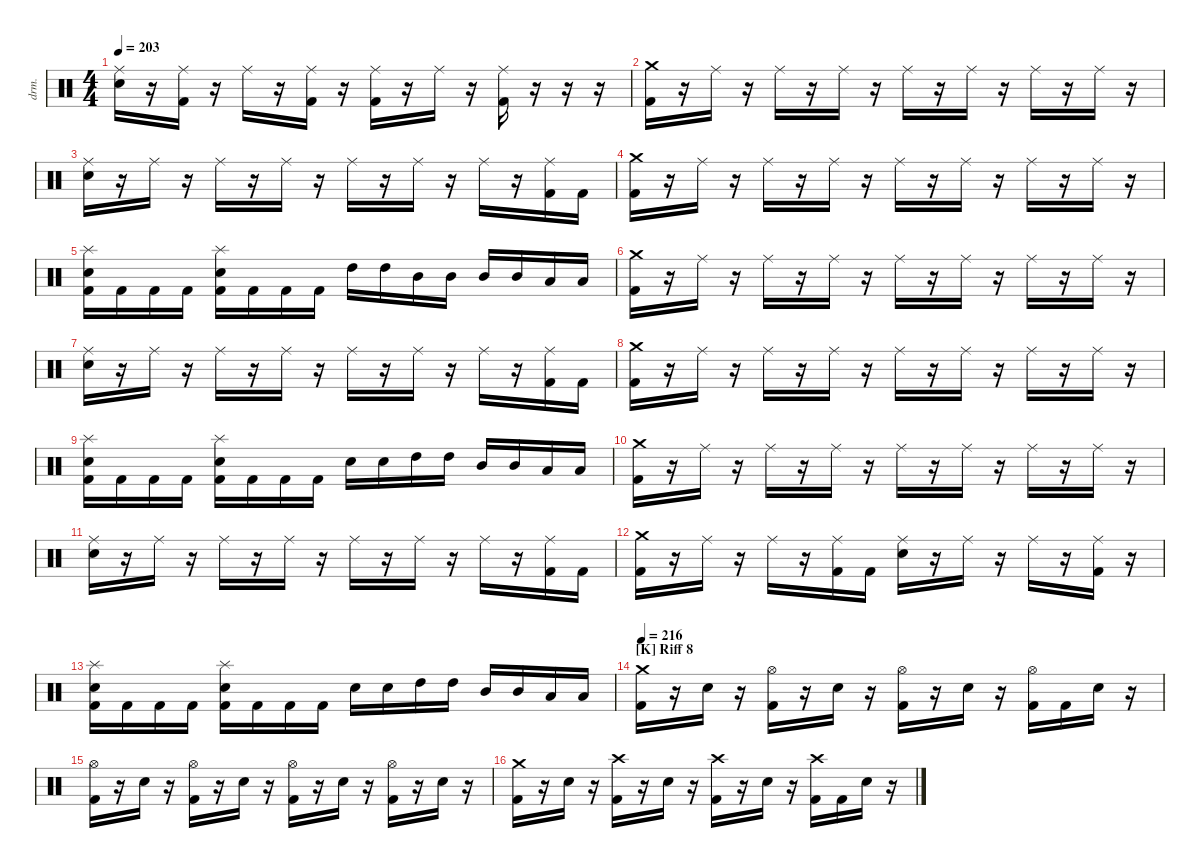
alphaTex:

\hideDynamics
\bracketExtendMode nobrackets
\track ("Drums" "drm.") {instrument percussion}
\staff {score}
\articulation defaults
\ts (4 4)
\tempo 203
\clef neutral
\ks c
("Ride (middle)" "Snare (hit) 2").16{dy mf beam Down} r.16{beam Down} ("Ride (middle)" "Kick (hit) 2").16{beam Down} r.16{beam Down} "Ride (middle)".16{beam Down} r.16{beam Down} ("Ride (middle)" "Kick (hit) 2").16{beam Down} r.16{beam Down} ("Ride (middle)" "Kick (hit) 2").16{beam Down} r.16{beam Down} "Ride (middle)".16{beam Down} r.16{beam Down} ("Ride (middle)" "Kick (hit) 2").16{beam Down} r.16{beam Down} r.16{beam Down} r.16{beam Down} |
("Crash medium (hit)" "Kick (hit) 2").16{beam Down} r.16{beam Down} "Ride (middle)".16{beam Down} r.16{beam Down} "Ride (middle)".16{beam Down} r.16{beam Down} "Ride (middle)".16{beam Down} r.16{beam Down} "Ride (middle)".16{beam Down} r.16{beam Down} "Ride (middle)".16{beam Down} r.16{beam Down} "Ride (middle)".16{beam Down} r.16{beam Down} "Ride (middle)".16{beam Down} r.16{beam Down} |
("Ride (middle)" "Snare (hit) 2").16{beam Down} r.16{beam Down} "Ride (middle)".16{beam Down} r.16{beam Down} "Ride (middle)".16{beam Down} r.16{beam Down} "Ride (middle)".16{beam Down} r.16{beam Down} "Ride (middle)".16{beam Down} r.16{beam Down} "Ride (middle)".16{beam Down} r.16{beam Down} "Ride (middle)".16{beam Down} r.16{beam Down} ("Ride (middle)" "Kick (hit) 2").16{beam Down} "Kick (hit) 2".16{beam Down} |
("Crash medium (hit)" "Kick (hit) 2").16{beam Down} r.16{beam Down} "Ride (middle)".16{beam Down} r.16{beam Down} "Ride (middle)".16{beam Down} r.16{beam Down} "Ride (middle)".16{beam Down} r.16{beam Down} "Ride (middle)".16{beam Down} r.16{beam Down} "Ride (middle)".16{beam Down} r.16{beam Down} "Ride (middle)".16{beam Down} r.16{beam Down} "Ride (middle)".16{beam Down} r.16{beam Down} |
("Snare (hit) 2" "Kick (hit) 2" "Splash (hit)").16{beam Down} "Kick (hit) 2".16{beam Down} "Kick (hit) 2".16{beam Down} "Kick (hit) 2".16{beam Down} ("Snare (hit) 2" "Kick (hit) 2" "Splash (hit)").16{beam Down} "Kick (hit) 2".16{beam Down} "Kick (hit) 2".16{beam Down} "Kick (hit) 2".16{beam Down} "High Tom (hit)".16{beam Down} "High Tom (hit)".16{beam Down} "Mid Tom (hit)".16{beam Down} "Mid Tom (hit)".16{beam Down} "Mid Tom (hit)".16{beam Up} "Mid Tom (hit)".16{beam Up} "Low Tom (hit)".16{beam Up} "Low Tom (hit)".16{beam Up} |
("Crash medium (hit)" "Kick (hit) 2").16{beam Down} r.16{beam Down} "Ride (middle)".16{beam Down} r.16{beam Down} "Ride (middle)".16{beam Down} r.16{beam Down} "Ride (middle)".16{beam Down} r.16{beam Down} "Ride (middle)".16{beam Down} r.16{beam Down} "Ride (middle)".16{beam Down} r.16{beam Down} "Ride (middle)".16{beam Down} r.16{beam Down} "Ride (middle)".16{beam Down} r.16{beam Down} |
("Ride (middle)" "Snare (hit) 2").16{beam Down} r.16{beam Down} "Ride (middle)".16{beam Down} r.16{beam Down} "Ride (middle)".16{beam Down} r.16{beam Down} "Ride (middle)".16{beam Down} r.16{beam Down} "Ride (middle)".16{beam Down} r.16{beam Down} "Ride (middle)".16{beam Down} r.16{beam Down} "Ride (middle)".16{beam Down} r.16{beam Down} ("Ride (middle)" "Kick (hit) 2").16{beam Down} "Kick (hit) 2".16{beam Down} |
("Crash medium (hit)" "Kick (hit) 2").16{beam Down} r.16{beam Down} "Ride (middle)".16{beam Down} r.16{beam Down} "Ride (middle)".16{beam Down} r.16{beam Down} "Ride (middle)".16{beam Down} r.16{beam Down} "Ride (middle)".16{beam Down} r.16{beam Down} "Ride (middle)".16{beam Down} r.16{beam Down} "Ride (middle)".16{beam Down} r.16{beam Down} "Ride (middle)".16{beam Down} r.16{beam Down} |
("Snare (hit) 2" "Kick (hit) 2" "Splash (hit)").16{beam Down} "Kick (hit) 2".16{beam Down} "Kick (hit) 2".16{beam Down} "Kick (hit) 2".16{beam Down} ("Snare (hit) 2" "Kick (hit) 2" "Splash (hit)").16{beam Down} "Kick (hit) 2".16{beam Down} "Kick (hit) 2".16{beam Down} "Kick (hit) 2".16{beam Down} "Snare (hit) 2".16{beam Down} "Snare (hit) 2".16{beam Down} "High Tom (hit)".16{beam Down} "High Tom (hit)".16{beam Down} "Mid Tom (hit)".16{beam Up} "Mid Tom (hit)".16{beam Up} "Low Tom (hit)".16{beam Up} "Low Tom (hit)".16{beam Up} |
("Crash medium (hit)" "Kick (hit) 2").16{beam Down} r.16{beam Down} "Ride (middle)".16{beam Down} r.16{beam Down} "Ride (middle)".16{beam Down} r.16{beam Down} "Ride (middle)".16{beam Down} r.16{beam Down} "Ride (middle)".16{beam Down} r.16{beam Down} "Ride (middle)".16{beam Down} r.16{beam Down} "Ride (middle)".16{beam Down} r.16{beam Down} "Ride (middle)".16{beam Down} r.16{beam Down} |
("Ride (middle)" "Snare (hit) 2").16{beam Down} r.16{beam Down} "Ride (middle)".16{beam Down} r.16{beam Down} "Ride (middle)".16{beam Down} r.16{beam Down} "Ride (middle)".16{beam Down} r.16{beam Down} "Ride (middle)".16{beam Down} r.16{beam Down} "Ride (middle)".16{beam Down} r.16{beam Down} "Ride (middle)".16{beam Down} r.16{beam Down} ("Ride (middle)" "Kick (hit) 2").16{beam Down} "Kick (hit) 2".16{beam Down} |
("Crash medium (hit)" "Kick (hit) 2").16{beam Down} r.16{beam Down} "Ride (middle)".16{beam Down} r.16{beam Down} "Ride (middle)".16{beam Down} r.16{beam Down} ("Ride (middle)" "Kick (hit) 2").16{beam Down} "Kick (hit) 2".16{beam Down} ("Ride (middle)" "Snare (hit) 2").16{beam Down} r.16{beam Down} "Ride (middle)".16{beam Down} r.16{beam Down} "Ride (middle)".16{beam Down} r.16{beam Down} ("Ride (middle)" "Kick (hit) 2").16{beam Down} r.16{beam Down} |
("Snare (hit) 2" "Kick (hit) 2" "Splash (hit)").16{beam Down} "Kick (hit) 2".16{beam Down} "Kick (hit) 2".16{beam Down} "Kick (hit) 2".16{beam Down} ("Snare (hit) 2" "Kick (hit) 2" "Splash (hit)").16{beam Down} "Kick (hit) 2".16{beam Down} "Kick (hit) 2".16{beam Down} "Kick (hit) 2".16{beam Down} "Snare (hit) 2".16{beam Down} "Snare (hit) 2".16{beam Down} "High Tom (hit)".16{beam Down} "High Tom (hit)".16{beam Down} "Mid Tom (hit)".16{beam Up} "Mid Tom (hit)".16{beam Up} "Low Tom (hit)".16{beam Up} "Low Tom (hit)".16{beam Up} |
\section ("K" "Riff 8")
\tempo 216
("Kick (hit) 2" "Crash medium (hit)").16{beam Down} r.16{beam Down} "Snare (hit) 2".16{beam Down} r.16{beam Down} ("Kick (hit) 2" "Hi-Hat (open)").16{beam Down} r.16{beam Down} "Snare (hit) 2".16{beam Down} r.16{beam Down} ("Kick (hit) 2" "Hi-Hat (open)").16{beam Down} r.16{beam Down} "Snare (hit) 2".16{beam Down} r.16{beam Down} ("Kick (hit) 2" "Hi-Hat (open)").16{beam Down} "Kick (hit) 2".16{beam Down} "Snare (hit) 2".16{beam Down} r.16{beam Down} |
("Kick (hit) 2" "Hi-Hat (open)").16{beam Down} r.16{beam Down} "Snare (hit) 2".16{beam Down} r.16{beam Down} ("Kick (hit) 2" "Hi-Hat (open)").16{beam Down} r.16{beam Down} "Snare (hit) 2".16{beam Down} r.16{beam Down} ("Kick (hit) 2" "Hi-Hat (open)").16{beam Down} r.16{beam Down} "Snare (hit) 2".16{beam Down} r.16{beam Down} ("Kick (hit) 2" "Hi-Hat (open)").16{beam Down} r.16{beam Down} "Snare (hit) 2".16{beam Down} r.16{beam Down} |
("Kick (hit) 2" "Crash medium (hit)").16{beam Down} r.16{beam Down} "Snare (hit) 2".16{beam Down} r.16{beam Down} ("Kick (hit) 2" "Crash high (hit)").16{beam Down} r.16{beam Down} "Snare (hit) 2".16{beam Down} r.16{beam Down} ("Kick (hit) 2" "Crash high (hit)").16{beam Down} r.16{beam Down} "Snare (hit) 2".16{beam Down} r.16{beam Down} ("Kick (hit) 2" "Crash high (hit)").16{beam Down} "Kick (hit) 2".16{beam Down} "Snare (hit) 2".16{beam Down} r.16{beam Down}
